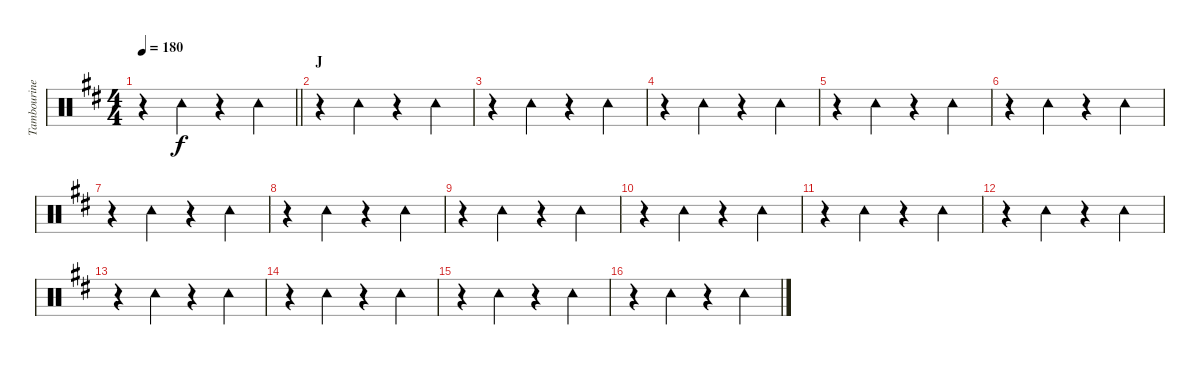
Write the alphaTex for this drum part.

\track ("Tambourine" "Tambourine") {instrument percussion}
\staff {score}
\articulation defaults
\ts (4 4)
\tempo 180
\clef neutral
\barLineRight lightlight
\ks d
r.4{dy f} "Tambourine (hit)".4 r.4 "Tambourine (hit)".4 |
\section ("" "J")
r.4 "Tambourine (hit)".4 r.4 "Tambourine (hit)".4 |
r.4 "Tambourine (hit)".4 r.4 "Tambourine (hit)".4 |
r.4 "Tambourine (hit)".4 r.4 "Tambourine (hit)".4 |
r.4 "Tambourine (hit)".4 r.4 "Tambourine (hit)".4 |
r.4 "Tambourine (hit)".4 r.4 "Tambourine (hit)".4 |
r.4 "Tambourine (hit)".4 r.4 "Tambourine (hit)".4 |
r.4 "Tambourine (hit)".4 r.4 "Tambourine (hit)".4 |
r.4 "Tambourine (hit)".4 r.4 "Tambourine (hit)".4 |
r.4 "Tambourine (hit)".4 r.4 "Tambourine (hit)".4 |
r.4 "Tambourine (hit)".4 r.4 "Tambourine (hit)".4 |
r.4 "Tambourine (hit)".4 r.4 "Tambourine (hit)".4 |
r.4 "Tambourine (hit)".4 r.4 "Tambourine (hit)".4 |
r.4 "Tambourine (hit)".4 r.4 "Tambourine (hit)".4 |
r.4 "Tambourine (hit)".4 r.4 "Tambourine (hit)".4 |
r.4 "Tambourine (hit)".4 r.4 "Tambourine (hit)".4
